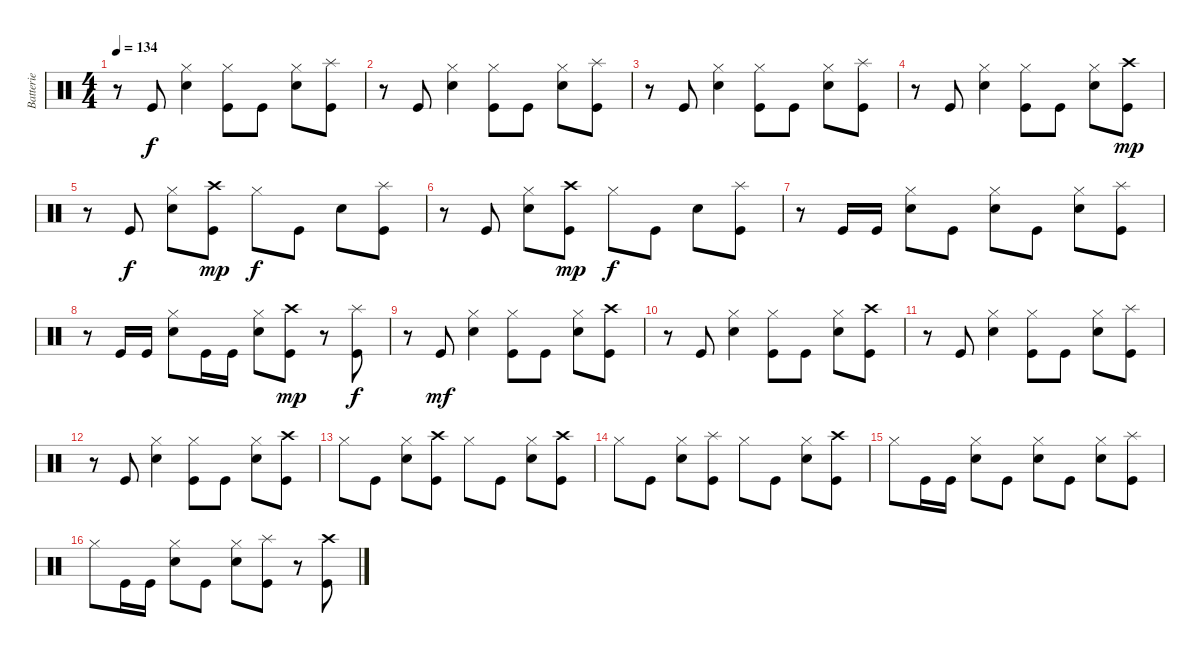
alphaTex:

\track ("Batterie" "Batterie") {instrument percussion}
\staff {score}
\articulation defaults
\ts (4 4)
\tempo 134
\clef neutral
\ks c
r.8{dy f} "Kick (hit)".8 ("Hi-Hat (closed)" "Snare (hit) 2").4 ("Hi-Hat (closed)" "Kick (hit)").8 "Kick (hit)".8 ("Hi-Hat (closed)" "Snare (hit) 2").8 ("Splash (hit)" "Kick (hit)").8 |
r.8 "Kick (hit)".8 ("Hi-Hat (closed)" "Snare (hit) 2").4 ("Hi-Hat (closed)" "Kick (hit)").8 "Kick (hit)".8 ("Hi-Hat (closed)" "Snare (hit) 2").8 ("Splash (hit)" "Kick (hit)").8 |
r.8 "Kick (hit)".8 ("Hi-Hat (closed)" "Snare (hit) 2").4 ("Hi-Hat (closed)" "Kick (hit)").8 "Kick (hit)".8 ("Hi-Hat (closed)" "Snare (hit) 2").8 ("Splash (hit)" "Kick (hit)").8 |
r.8 "Kick (hit)".8 ("Hi-Hat (closed)" "Snare (hit) 2").4 ("Hi-Hat (closed)" "Kick (hit)").8 "Kick (hit)".8 ("Hi-Hat (closed)" "Snare (hit) 2").8 ("Crash high (hit)" "Kick (hit)").8{dy mp} |
r.8 "Kick (hit)".8{dy f} ("Hi-Hat (closed)" "Snare (hit) 2").8 ("Crash high (hit)" "Kick (hit)").8{dy mp} "Hi-Hat (closed)".8{dy f} "Kick (hit)".8 "Snare (hit) 2".8 ("Splash (hit)" "Kick (hit)").8 |
r.8 "Kick (hit)".8 ("Hi-Hat (closed)" "Snare (hit) 2").8 ("Crash high (hit)" "Kick (hit)").8{dy mp} "Hi-Hat (closed)".8{dy f} "Kick (hit)".8 "Snare (hit) 2".8 ("Splash (hit)" "Kick (hit)").8 |
r.8 "Kick (hit)".16 "Kick (hit)".16 ("Hi-Hat (closed)" "Snare (hit) 2").8 "Kick (hit)".8 ("Hi-Hat (closed)" "Snare (hit) 2").8 "Kick (hit)".8 ("Hi-Hat (closed)" "Snare (hit) 2").8 ("Splash (hit)" "Kick (hit)").8 |
r.8 "Kick (hit)".16 "Kick (hit)".16 ("Hi-Hat (closed)" "Snare (hit) 2").8 "Kick (hit)".16 "Kick (hit)".16 ("Hi-Hat (closed)" "Snare (hit) 2").8 ("Crash high (hit)" "Kick (hit)").8{dy mp} r.8 ("Splash (hit)" "Kick (hit)").8{dy f} |
r.8 "Kick (hit)".8{dy mf} ("Hi-Hat (closed)" "Snare (hit) 2").4 ("Hi-Hat (closed)" "Kick (hit)").8 "Kick (hit)".8 ("Hi-Hat (closed)" "Snare (hit) 2").8 ("Crash high (hit)" "Kick (hit)").8 |
r.8 "Kick (hit)".8 ("Hi-Hat (closed)" "Snare (hit) 2").4 ("Hi-Hat (closed)" "Kick (hit)").8 "Kick (hit)".8 ("Hi-Hat (closed)" "Snare (hit) 2").8 ("Crash high (hit)" "Kick (hit)").8 |
r.8 "Kick (hit)".8 ("Hi-Hat (closed)" "Snare (hit) 2").4 ("Hi-Hat (closed)" "Kick (hit)").8 "Kick (hit)".8 ("Hi-Hat (closed)" "Snare (hit) 2").8 ("Splash (hit)" "Kick (hit)").8 |
r.8 "Kick (hit)".8 ("Hi-Hat (closed)" "Snare (hit) 2").4 ("Hi-Hat (closed)" "Kick (hit)").8 "Kick (hit)".8 ("Hi-Hat (closed)" "Snare (hit) 2").8 ("Crash high (hit)" "Kick (hit)").8 |
"Hi-Hat (closed)".8 "Kick (hit)".8 ("Hi-Hat (closed)" "Snare (hit) 2").8 ("Crash high (hit)" "Kick (hit)").8 "Hi-Hat (closed)".8 "Kick (hit)".8 ("Hi-Hat (closed)" "Snare (hit) 2").8 ("Crash high (hit)" "Kick (hit)").8 |
"Hi-Hat (closed)".8 "Kick (hit)".8 ("Hi-Hat (closed)" "Snare (hit) 2").8 ("Splash (hit)" "Kick (hit)").8 "Hi-Hat (closed)".8 "Kick (hit)".8 ("Hi-Hat (closed)" "Snare (hit) 2").8 ("Crash high (hit)" "Kick (hit)").8 |
"Hi-Hat (closed)".8 "Kick (hit)".16 "Kick (hit)".16 ("Hi-Hat (closed)" "Snare (hit) 2").8 "Kick (hit)".8 ("Hi-Hat (closed)" "Snare (hit) 2").8 "Kick (hit)".8 ("Hi-Hat (closed)" "Snare (hit) 2").8 ("Splash (hit)" "Kick (hit)").8 |
"Hi-Hat (closed)".8 "Kick (hit)".16 "Kick (hit)".16 ("Hi-Hat (closed)" "Snare (hit) 2").8 "Kick (hit)".8 ("Hi-Hat (closed)" "Snare (hit) 2").8 ("Splash (hit)" "Kick (hit)").8 r.8 ("Crash high (hit)" "Kick (hit)").8
